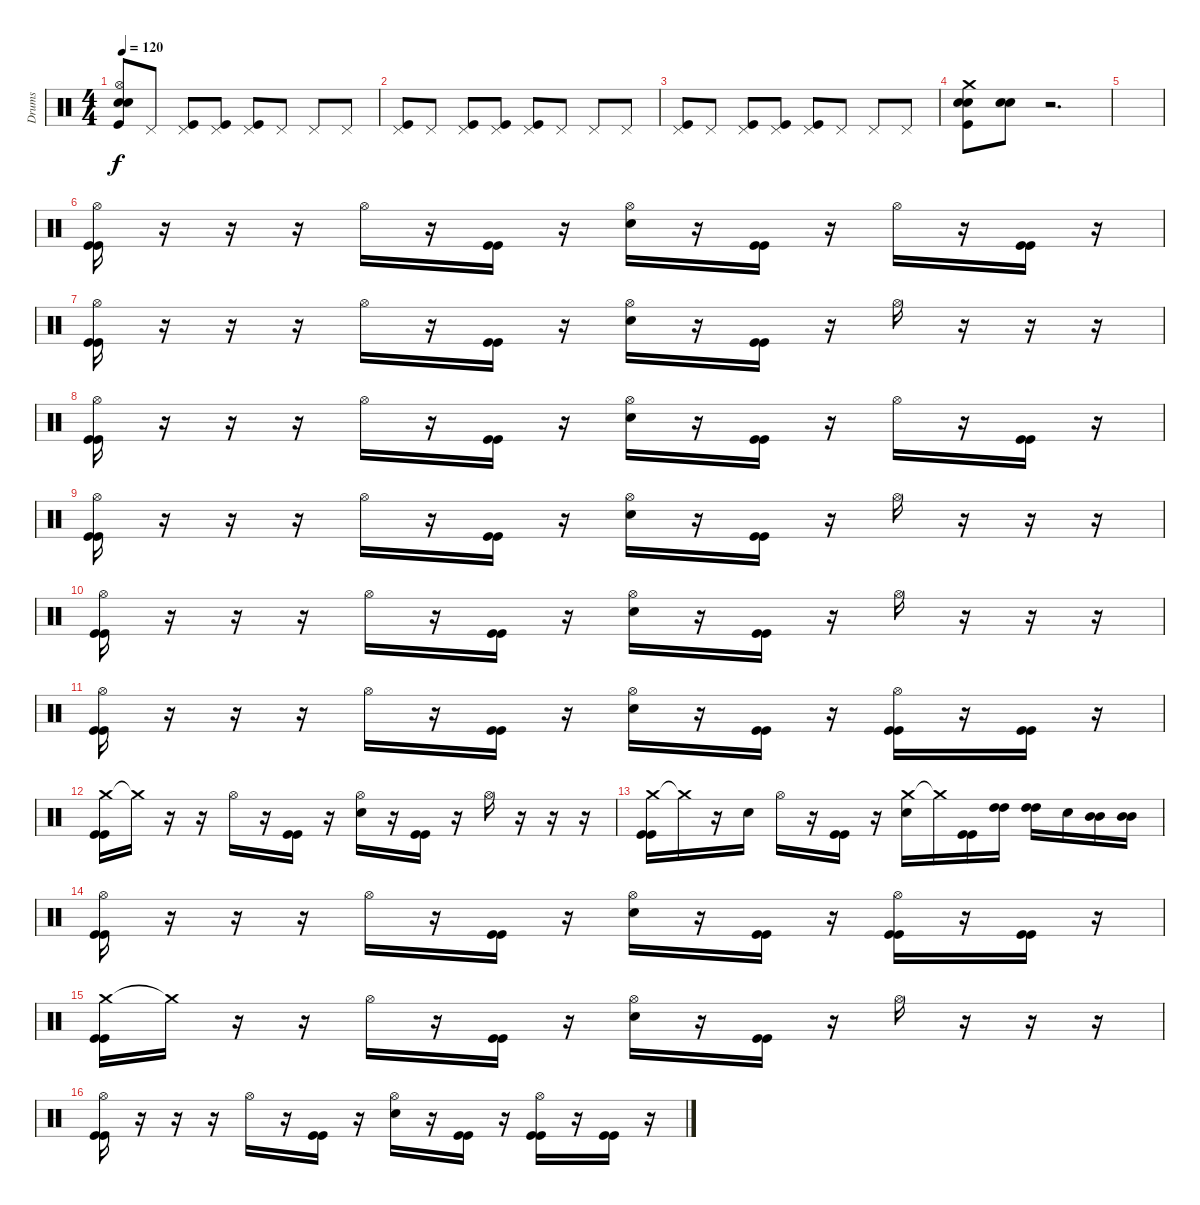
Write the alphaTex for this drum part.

\track ("Drums" "Drums") {instrument percussion}
\staff {score}
\articulation defaults
\ts (4 4)
\tempo 120
\clef neutral
\ks c
("Electric Snare (hit)" "Hi-Hat (open)" "Kick (hit)" "Snare (hit) 2").8{dy f} "Pedal Hi-Hat (hit)".8 ("Pedal Hi-Hat (hit)" "Kick (hit)").8 ("Pedal Hi-Hat (hit)" "Kick (hit)").8 ("Pedal Hi-Hat (hit)" "Kick (hit)").8 "Pedal Hi-Hat (hit)".8 "Pedal Hi-Hat (hit)".8 "Pedal Hi-Hat (hit)".8 |
("Pedal Hi-Hat (hit)" "Kick (hit)").8 "Pedal Hi-Hat (hit)".8 ("Pedal Hi-Hat (hit)" "Kick (hit)").8 ("Pedal Hi-Hat (hit)" "Kick (hit)").8 ("Pedal Hi-Hat (hit)" "Kick (hit)").8 "Pedal Hi-Hat (hit)".8 "Pedal Hi-Hat (hit)".8 "Pedal Hi-Hat (hit)".8 |
("Pedal Hi-Hat (hit)" "Kick (hit)").8 "Pedal Hi-Hat (hit)".8 ("Pedal Hi-Hat (hit)" "Kick (hit)").8 ("Pedal Hi-Hat (hit)" "Kick (hit)").8 ("Pedal Hi-Hat (hit)" "Kick (hit)").8 "Pedal Hi-Hat (hit)".8 "Pedal Hi-Hat (hit)".8 "Pedal Hi-Hat (hit)".8 |
("Electric Snare (hit)" "Crash medium (hit)" "Electric Snare (hit)" "Kick (hit)").8 ("Electric Snare (hit)" "Electric Snare (hit)").8 r.2{d} |
|
("Hi-Hat (open)" "Kick (hit)" "Kick (hit)").16{volume 14} r.16 r.16 r.16 "Hi-Hat (open)".16 r.16 ("Kick (hit)" "Kick (hit)").16 r.16 ("Hi-Hat (open)" "Electric Snare (hit)").16 r.16 ("Kick (hit)" "Kick (hit)").16 r.16 "Hi-Hat (open)".16 r.16 ("Kick (hit)" "Kick (hit)").16 r.16 |
("Hi-Hat (open)" "Kick (hit)" "Kick (hit)").16 r.16 r.16 r.16 "Hi-Hat (open)".16 r.16 ("Kick (hit)" "Kick (hit)").16 r.16 ("Hi-Hat (open)" "Electric Snare (hit)").16 r.16 ("Kick (hit)" "Kick (hit)").16 r.16 "Hi-Hat (open)".16 r.16 r.16 r.16 |
("Hi-Hat (open)" "Kick (hit)" "Kick (hit)").16 r.16 r.16 r.16 "Hi-Hat (open)".16 r.16 ("Kick (hit)" "Kick (hit)").16 r.16 ("Hi-Hat (open)" "Electric Snare (hit)").16 r.16 ("Kick (hit)" "Kick (hit)").16 r.16 "Hi-Hat (open)".16 r.16 ("Kick (hit)" "Kick (hit)").16 r.16 |
("Hi-Hat (open)" "Kick (hit)" "Kick (hit)").16 r.16 r.16 r.16 "Hi-Hat (open)".16 r.16 ("Kick (hit)" "Kick (hit)").16 r.16 ("Hi-Hat (open)" "Electric Snare (hit)").16 r.16 ("Kick (hit)" "Kick (hit)").16 r.16 "Hi-Hat (open)".16 r.16 r.16 r.16 |
("Hi-Hat (open)" "Kick (hit)" "Kick (hit)").16 r.16 r.16 r.16 "Hi-Hat (open)".16 r.16 ("Kick (hit)" "Kick (hit)").16 r.16 ("Hi-Hat (open)" "Electric Snare (hit)").16 r.16 ("Kick (hit)" "Kick (hit)").16 r.16 "Hi-Hat (open)".16 r.16 r.16 r.16 |
("Hi-Hat (open)" "Kick (hit)" "Kick (hit)").16 r.16 r.16 r.16 "Hi-Hat (open)".16 r.16 ("Kick (hit)" "Kick (hit)").16 r.16 ("Hi-Hat (open)" "Electric Snare (hit)").16 r.16 ("Kick (hit)" "Kick (hit)").16 r.16 ("Hi-Hat (open)" "Kick (hit)" "Kick (hit)").16 r.16 ("Kick (hit)" "Kick (hit)").16 r.16 |
("Crash medium (hit)" "Kick (hit)" "Kick (hit)").16 "Crash medium (hit)"{t}.16 r.16 r.16 "Hi-Hat (open)".16 r.16 ("Kick (hit)" "Kick (hit)").16 r.16 ("Hi-Hat (open)" "Electric Snare (hit)").16 r.16 ("Kick (hit)" "Kick (hit)").16 r.16 "Hi-Hat (open)".16 r.16 r.16 r.16 |
("Crash medium (hit)" "Kick (hit)" "Kick (hit)").16 "Crash medium (hit)"{t}.16 r.16 "Electric Snare (hit)".16 "Hi-Hat (open)".16 r.16 ("Kick (hit)" "Kick (hit)").16 r.16 ("Crash medium (hit)" "Electric Snare (hit)").16 "Crash medium (hit)"{t}.16 ("Kick (hit)" "Kick (hit)").16 ("High Tom (hit)" "High Tom (hit)").16 ("High Tom (hit)" "High Tom (hit)").16 "Electric Snare (hit)".16 ("Mid Tom (hit)" "Mid Tom (hit)").16 ("Mid Tom (hit)" "Mid Tom (hit)").16 |
("Hi-Hat (open)" "Kick (hit)" "Kick (hit)").16 r.16 r.16 r.16 "Hi-Hat (open)".16 r.16 ("Kick (hit)" "Kick (hit)").16 r.16 ("Hi-Hat (open)" "Electric Snare (hit)").16 r.16 ("Kick (hit)" "Kick (hit)").16 r.16 ("Hi-Hat (open)" "Kick (hit)" "Kick (hit)").16 r.16 ("Kick (hit)" "Kick (hit)").16 r.16 |
("Crash medium (hit)" "Kick (hit)" "Kick (hit)").16 "Crash medium (hit)"{t}.16 r.16 r.16 "Hi-Hat (open)".16 r.16 ("Kick (hit)" "Kick (hit)").16 r.16 ("Hi-Hat (open)" "Electric Snare (hit)").16 r.16 ("Kick (hit)" "Kick (hit)").16 r.16 "Hi-Hat (open)".16 r.16 r.16 r.16 |
("Hi-Hat (open)" "Kick (hit)" "Kick (hit)").16 r.16 r.16 r.16 "Hi-Hat (open)".16 r.16 ("Kick (hit)" "Kick (hit)").16 r.16 ("Hi-Hat (open)" "Electric Snare (hit)").16 r.16 ("Kick (hit)" "Kick (hit)").16 r.16 ("Hi-Hat (open)" "Kick (hit)" "Kick (hit)").16 r.16 ("Kick (hit)" "Kick (hit)").16 r.16
